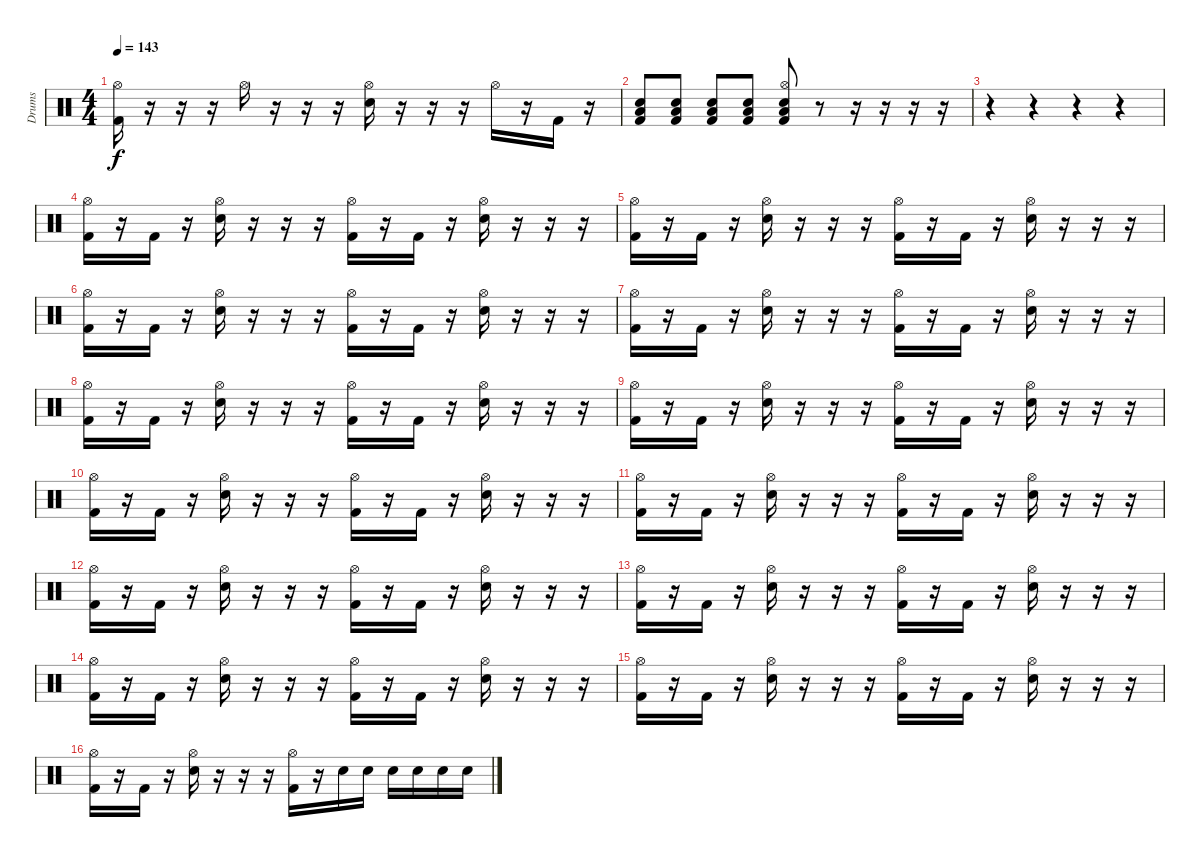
\track ("Drums" "Drums") {instrument percussion}
\staff {score}
\articulation defaults
\ts (4 4)
\tempo 143
\clef neutral
\ks c
("Kick (hit) 2" "Hi-Hat (open)").16{dy f} r.16 r.16 r.16 "Hi-Hat (open)".16 r.16 r.16 r.16 ("Electric Snare (hit)" "Hi-Hat (open)").16 r.16 r.16 r.16 "Hi-Hat (open)".16 r.16 "Kick (hit) 2".16 r.16 |
("Kick (hit) 2" "Electric Snare (hit)" "Low Floor Tom (hit)").8 ("Kick (hit) 2" "Electric Snare (hit)" "Low Floor Tom (hit)").8 ("Kick (hit) 2" "Electric Snare (hit)" "Low Floor Tom (hit)").8 ("Kick (hit) 2" "Electric Snare (hit)" "Low Floor Tom (hit)").8 ("Kick (hit) 2" "Electric Snare (hit)" "Low Floor Tom (hit)" "Hi-Hat (open)").8 r.8 r.16 r.16 r.16 r.16 |
r.4 r.4 r.4 r.4 |
("Kick (hit) 2" "Hi-Hat (open)").16 r.16 "Kick (hit) 2".16 r.16 ("Electric Snare (hit)" "Hi-Hat (open)").16 r.16 r.16 r.16 ("Kick (hit) 2" "Hi-Hat (open)").16 r.16 "Kick (hit) 2".16 r.16 ("Electric Snare (hit)" "Hi-Hat (open)").16 r.16 r.16 r.16 |
("Kick (hit) 2" "Hi-Hat (open)").16 r.16 "Kick (hit) 2".16 r.16 ("Electric Snare (hit)" "Hi-Hat (open)").16 r.16 r.16 r.16 ("Kick (hit) 2" "Hi-Hat (open)").16 r.16 "Kick (hit) 2".16 r.16 ("Electric Snare (hit)" "Hi-Hat (open)").16 r.16 r.16 r.16 |
("Kick (hit) 2" "Hi-Hat (open)").16 r.16 "Kick (hit) 2".16 r.16 ("Electric Snare (hit)" "Hi-Hat (open)").16 r.16 r.16 r.16 ("Kick (hit) 2" "Hi-Hat (open)").16 r.16 "Kick (hit) 2".16 r.16 ("Electric Snare (hit)" "Hi-Hat (open)").16 r.16 r.16 r.16 |
("Kick (hit) 2" "Hi-Hat (open)").16 r.16 "Kick (hit) 2".16 r.16 ("Electric Snare (hit)" "Hi-Hat (open)").16 r.16 r.16 r.16 ("Kick (hit) 2" "Hi-Hat (open)").16 r.16 "Kick (hit) 2".16 r.16 ("Electric Snare (hit)" "Hi-Hat (open)").16 r.16 r.16 r.16 |
("Kick (hit) 2" "Hi-Hat (open)").16 r.16 "Kick (hit) 2".16 r.16 ("Electric Snare (hit)" "Hi-Hat (open)").16 r.16 r.16 r.16 ("Kick (hit) 2" "Hi-Hat (open)").16 r.16 "Kick (hit) 2".16 r.16 ("Electric Snare (hit)" "Hi-Hat (open)").16 r.16 r.16 r.16 |
("Kick (hit) 2" "Hi-Hat (open)").16 r.16 "Kick (hit) 2".16 r.16 ("Electric Snare (hit)" "Hi-Hat (open)").16 r.16 r.16 r.16 ("Kick (hit) 2" "Hi-Hat (open)").16 r.16 "Kick (hit) 2".16 r.16 ("Electric Snare (hit)" "Hi-Hat (open)").16 r.16 r.16 r.16 |
("Kick (hit) 2" "Hi-Hat (open)").16 r.16 "Kick (hit) 2".16 r.16 ("Electric Snare (hit)" "Hi-Hat (open)").16 r.16 r.16 r.16 ("Kick (hit) 2" "Hi-Hat (open)").16 r.16 "Kick (hit) 2".16 r.16 ("Electric Snare (hit)" "Hi-Hat (open)").16 r.16 r.16 r.16 |
("Kick (hit) 2" "Hi-Hat (open)").16 r.16 "Kick (hit) 2".16 r.16 ("Electric Snare (hit)" "Hi-Hat (open)").16 r.16 r.16 r.16 ("Kick (hit) 2" "Hi-Hat (open)").16 r.16 "Kick (hit) 2".16 r.16 ("Electric Snare (hit)" "Hi-Hat (open)").16 r.16 r.16 r.16 |
("Kick (hit) 2" "Hi-Hat (open)").16 r.16 "Kick (hit) 2".16 r.16 ("Electric Snare (hit)" "Hi-Hat (open)").16 r.16 r.16 r.16 ("Kick (hit) 2" "Hi-Hat (open)").16 r.16 "Kick (hit) 2".16 r.16 ("Electric Snare (hit)" "Hi-Hat (open)").16 r.16 r.16 r.16 |
("Kick (hit) 2" "Hi-Hat (open)").16 r.16 "Kick (hit) 2".16 r.16 ("Electric Snare (hit)" "Hi-Hat (open)").16 r.16 r.16 r.16 ("Kick (hit) 2" "Hi-Hat (open)").16 r.16 "Kick (hit) 2".16 r.16 ("Electric Snare (hit)" "Hi-Hat (open)").16 r.16 r.16 r.16 |
("Kick (hit) 2" "Hi-Hat (open)").16 r.16 "Kick (hit) 2".16 r.16 ("Electric Snare (hit)" "Hi-Hat (open)").16 r.16 r.16 r.16 ("Kick (hit) 2" "Hi-Hat (open)").16 r.16 "Kick (hit) 2".16 r.16 ("Electric Snare (hit)" "Hi-Hat (open)").16 r.16 r.16 r.16 |
("Kick (hit) 2" "Hi-Hat (open)").16 r.16 "Kick (hit) 2".16 r.16 ("Electric Snare (hit)" "Hi-Hat (open)").16 r.16 r.16 r.16 ("Kick (hit) 2" "Hi-Hat (open)").16 r.16 "Kick (hit) 2".16 r.16 ("Electric Snare (hit)" "Hi-Hat (open)").16 r.16 r.16 r.16 |
("Kick (hit) 2" "Hi-Hat (open)").16 r.16 "Kick (hit) 2".16 r.16 ("Electric Snare (hit)" "Hi-Hat (open)").16 r.16 r.16 r.16 ("Kick (hit) 2" "Hi-Hat (open)").16 r.16 "Electric Snare (hit)".16 "Electric Snare (hit)".16 "Electric Snare (hit)".16 "Electric Snare (hit)".16 "Electric Snare (hit)".16 "Electric Snare (hit)".16
